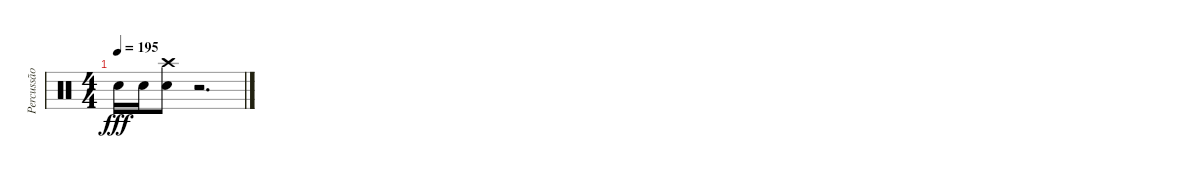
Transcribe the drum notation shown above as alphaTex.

\track ("Percussão" "Percussão") {instrument percussion}
\staff {score}
\articulation defaults
\ts (4 4)
\tempo 195
\clef neutral
\ks c "Electric Snare (hit)".16{dy fff} "Electric Snare (hit)".16
("Crash high (hit)" "Electric Snare (hit)").8 r.2{d}
